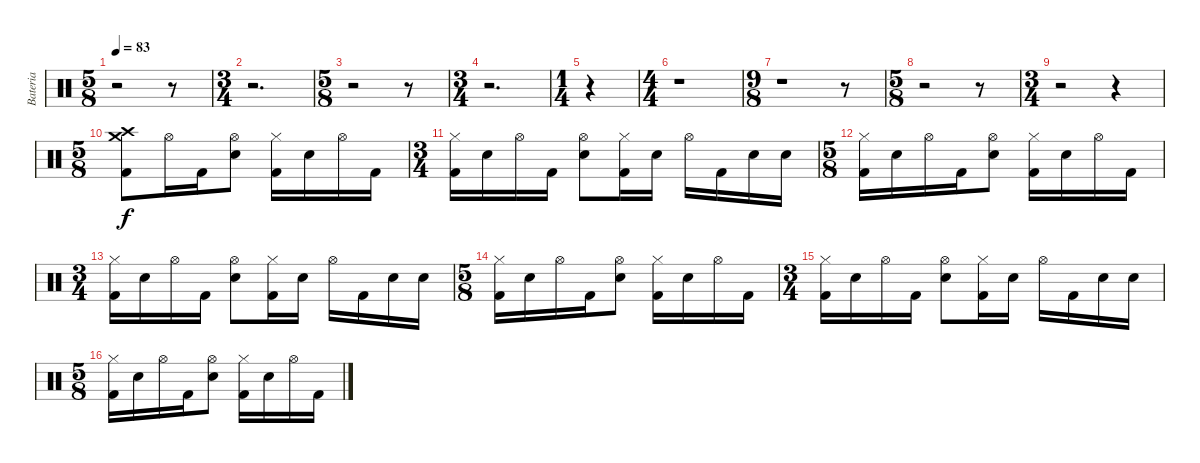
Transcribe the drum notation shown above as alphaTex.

\track ("Bateria" "Bateria") {instrument percussion}
\staff {score}
\articulation defaults
\ts (5 8)
\tempo 83
\clef neutral
\ks c
r.2{dy f} r.8 |
\ts (3 4)
r.2{d} |
\ts (5 8)
r.2 r.8 |
\ts (3 4)
r.2{d} |
\ts (1 4)
r.4 |
\ts (4 4)
r.1 |
\ts (9 8)
r.1 r.8 |
\ts (5 8)
r.2 r.8 |
\ts (3 4)
r.2 r.4 |
\ts (5 8)
("Crash medium (hit)" "Crash high (hit)" "Kick (hit) 2").8 "Hi-Hat (open)".16 "Kick (hit) 2".16 ("Hi-Hat (open)" "Snare (hit) 2").8 ("Hi-Hat (closed)" "Kick (hit) 2").16 "Snare (hit) 2".16 "Hi-Hat (open)".16 "Kick (hit) 2".16 |
\ts (3 4)
("Hi-Hat (closed)" "Kick (hit) 2").16 "Snare (hit) 2".16 "Hi-Hat (open)".16 "Kick (hit) 2".16 ("Hi-Hat (open)" "Snare (hit) 2").8 ("Hi-Hat (closed)" "Kick (hit) 2").16 "Snare (hit) 2".16 "Hi-Hat (open)".16 "Kick (hit) 2".16 "Snare (hit) 2".16 "Snare (hit) 2".16 |
\ts (5 8)
("Hi-Hat (closed)" "Kick (hit) 2").16 "Snare (hit) 2".16 "Hi-Hat (open)".16 "Kick (hit) 2".16 ("Hi-Hat (open)" "Snare (hit) 2").8 ("Hi-Hat (closed)" "Kick (hit) 2").16 "Snare (hit) 2".16 "Hi-Hat (open)".16 "Kick (hit) 2".16 |
\ts (3 4)
("Hi-Hat (closed)" "Kick (hit) 2").16 "Snare (hit) 2".16 "Hi-Hat (open)".16 "Kick (hit) 2".16 ("Hi-Hat (open)" "Snare (hit) 2").8 ("Hi-Hat (closed)" "Kick (hit) 2").16 "Snare (hit) 2".16 "Hi-Hat (open)".16 "Kick (hit) 2".16 "Snare (hit) 2".16 "Snare (hit) 2".16 |
\ts (5 8)
("Hi-Hat (closed)" "Kick (hit) 2").16 "Snare (hit) 2".16 "Hi-Hat (open)".16 "Kick (hit) 2".16 ("Hi-Hat (open)" "Snare (hit) 2").8 ("Hi-Hat (closed)" "Kick (hit) 2").16 "Snare (hit) 2".16 "Hi-Hat (open)".16 "Kick (hit) 2".16 |
\ts (3 4)
("Hi-Hat (closed)" "Kick (hit) 2").16 "Snare (hit) 2".16 "Hi-Hat (open)".16 "Kick (hit) 2".16 ("Hi-Hat (open)" "Snare (hit) 2").8 ("Hi-Hat (closed)" "Kick (hit) 2").16 "Snare (hit) 2".16 "Hi-Hat (open)".16 "Kick (hit) 2".16 "Snare (hit) 2".16 "Snare (hit) 2".16 |
\ts (5 8)
("Hi-Hat (closed)" "Kick (hit) 2").16 "Snare (hit) 2".16 "Hi-Hat (open)".16 "Kick (hit) 2".16 ("Hi-Hat (open)" "Snare (hit) 2").8 ("Hi-Hat (closed)" "Kick (hit) 2").16 "Snare (hit) 2".16 "Hi-Hat (open)".16 "Kick (hit) 2".16
